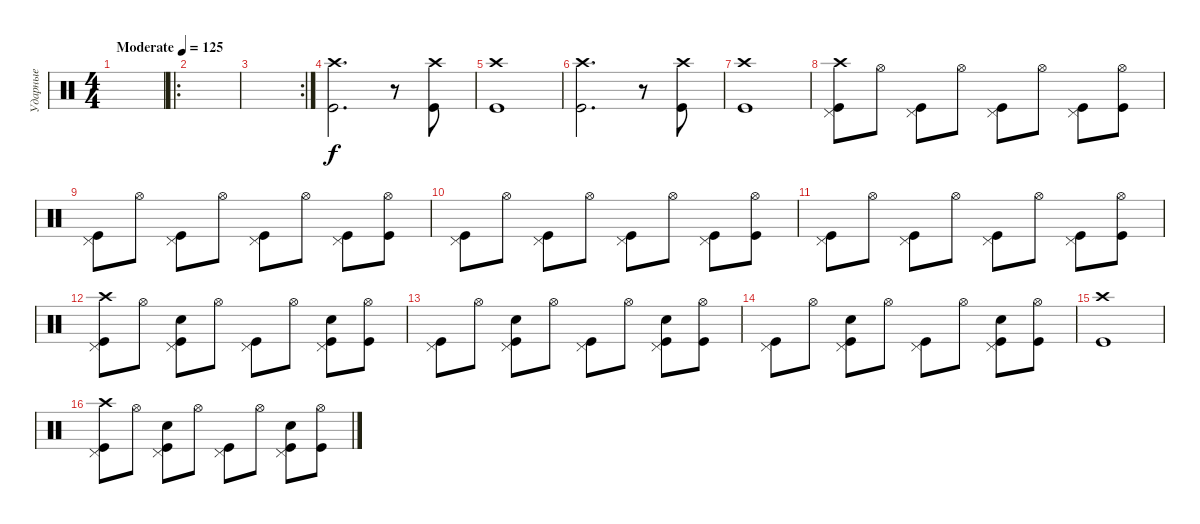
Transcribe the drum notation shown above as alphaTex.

\track ("Ударные" "Ударные") {instrument percussion}
\staff {score}
\articulation defaults
\ts (4 4)
\tempo (125 "Moderate")
\clef neutral
\ks c
|
\ro
|
\rc 2
|
("Kick (hit)" "Crash high (hit)").2{d} r.8 ("Kick (hit)" "Crash high (hit)").8 |
("Kick (hit)" "Crash high (hit)").1 |
("Kick (hit)" "Crash high (hit)").2{d} r.8 ("Kick (hit)" "Crash high (hit)").8 |
("Kick (hit)" "Crash high (hit)").1 |
("Kick (hit)" "Pedal Hi-Hat (hit)" "Crash high (hit)").8 "Hi-Hat (open)".8 ("Kick (hit)" "Pedal Hi-Hat (hit)").8 "Hi-Hat (open)".8 ("Kick (hit)" "Pedal Hi-Hat (hit)").8 "Hi-Hat (open)".8 ("Kick (hit)" "Pedal Hi-Hat (hit)").8 ("Kick (hit)" "Hi-Hat (open)").8 |
("Kick (hit)" "Pedal Hi-Hat (hit)").8 "Hi-Hat (open)".8 ("Kick (hit)" "Pedal Hi-Hat (hit)").8 "Hi-Hat (open)".8 ("Kick (hit)" "Pedal Hi-Hat (hit)").8 "Hi-Hat (open)".8 ("Kick (hit)" "Pedal Hi-Hat (hit)").8 ("Kick (hit)" "Hi-Hat (open)").8 |
("Kick (hit)" "Pedal Hi-Hat (hit)").8 "Hi-Hat (open)".8 ("Kick (hit)" "Pedal Hi-Hat (hit)").8 "Hi-Hat (open)".8 ("Kick (hit)" "Pedal Hi-Hat (hit)").8 "Hi-Hat (open)".8 ("Kick (hit)" "Pedal Hi-Hat (hit)").8 ("Kick (hit)" "Hi-Hat (open)").8 |
("Kick (hit)" "Pedal Hi-Hat (hit)").8 "Hi-Hat (open)".8 ("Kick (hit)" "Pedal Hi-Hat (hit)").8 "Hi-Hat (open)".8 ("Kick (hit)" "Pedal Hi-Hat (hit)").8 "Hi-Hat (open)".8 ("Kick (hit)" "Pedal Hi-Hat (hit)").8 ("Kick (hit)" "Hi-Hat (open)").8 |
("Kick (hit)" "Pedal Hi-Hat (hit)" "Crash high (hit)").8 "Hi-Hat (open)".8 ("Kick (hit)" "Pedal Hi-Hat (hit)" "Hand Clap (hit)").8 "Hi-Hat (open)".8 ("Kick (hit)" "Pedal Hi-Hat (hit)").8 "Hi-Hat (open)".8 ("Kick (hit)" "Pedal Hi-Hat (hit)" "Hand Clap (hit)").8 ("Kick (hit)" "Hi-Hat (open)").8 |
("Kick (hit)" "Pedal Hi-Hat (hit)").8 "Hi-Hat (open)".8 ("Kick (hit)" "Pedal Hi-Hat (hit)" "Hand Clap (hit)").8 "Hi-Hat (open)".8 ("Kick (hit)" "Pedal Hi-Hat (hit)").8 "Hi-Hat (open)".8 ("Kick (hit)" "Pedal Hi-Hat (hit)" "Hand Clap (hit)").8 ("Kick (hit)" "Hi-Hat (open)").8 |
("Kick (hit)" "Pedal Hi-Hat (hit)").8 "Hi-Hat (open)".8 ("Kick (hit)" "Pedal Hi-Hat (hit)" "Hand Clap (hit)").8 "Hi-Hat (open)".8 ("Kick (hit)" "Pedal Hi-Hat (hit)").8 "Hi-Hat (open)".8 ("Kick (hit)" "Pedal Hi-Hat (hit)" "Hand Clap (hit)").8 ("Kick (hit)" "Hi-Hat (open)").8 |
("Kick (hit)" "Crash high (hit)").1 |
("Kick (hit)" "Pedal Hi-Hat (hit)" "Crash high (hit)").8 "Hi-Hat (open)".8 ("Kick (hit)" "Pedal Hi-Hat (hit)" "Hand Clap (hit)").8 "Hi-Hat (open)".8 ("Kick (hit)" "Pedal Hi-Hat (hit)").8 "Hi-Hat (open)".8 ("Kick (hit)" "Pedal Hi-Hat (hit)" "Hand Clap (hit)").8 ("Kick (hit)" "Hi-Hat (open)").8
